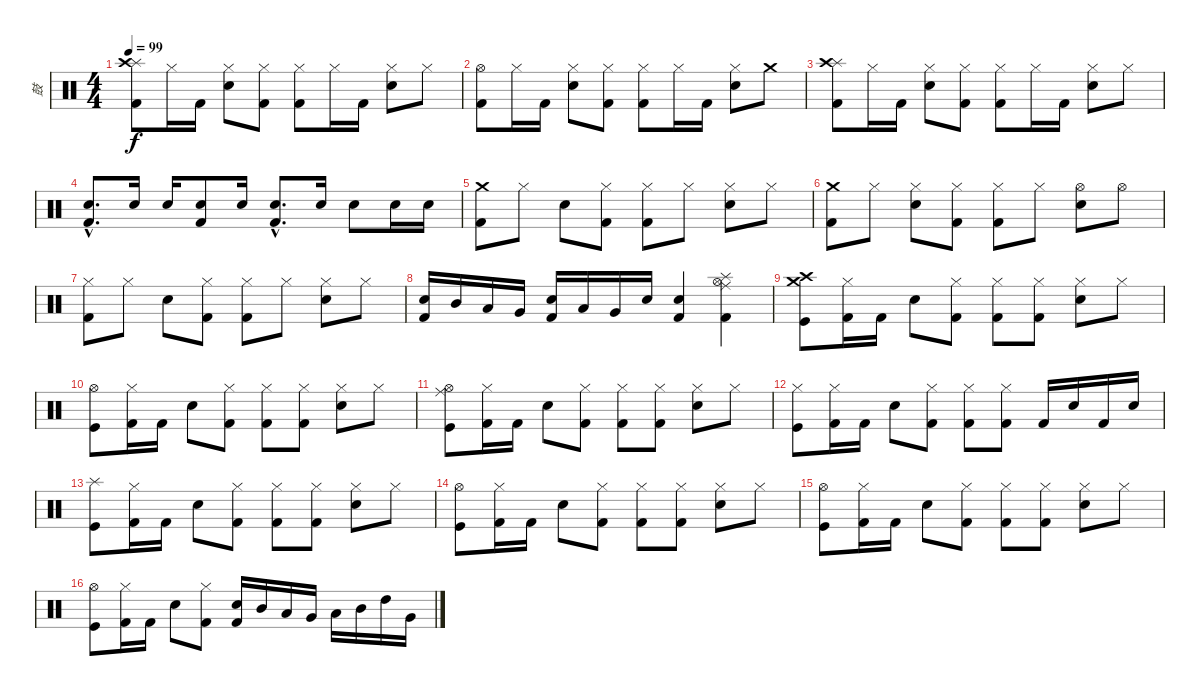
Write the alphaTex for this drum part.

\track ("鼓" "鼓") {instrument percussion}
\staff {score}
\articulation defaults
\ts (4 4)
\tempo 99
\clef neutral
\ks c
("Splash (hit)" "Crash high (hit)" "Kick (hit) 2").8{dy f} "Hi-Hat (closed)".16 "Kick (hit) 2".16 ("Hi-Hat (closed)" "Electric Snare (hit)").8 ("Hi-Hat (closed)" "Kick (hit) 2").8 ("Hi-Hat (closed)" "Kick (hit) 2").8 "Hi-Hat (closed)".16 "Kick (hit) 2".16 ("Hi-Hat (closed)" "Electric Snare (hit)").8 "Hi-Hat (closed)".8 |
("Hi-Hat (open)" "Kick (hit) 2").8 "Hi-Hat (closed)".16 "Kick (hit) 2".16 ("Hi-Hat (closed)" "Electric Snare (hit)").8 ("Hi-Hat (closed)" "Kick (hit) 2").8 ("Hi-Hat (closed)" "Kick (hit) 2").8 "Hi-Hat (closed)".16 "Kick (hit) 2".16 ("Hi-Hat (closed)" "Electric Snare (hit)").8 "Crash medium (hit)".8 |
("Splash (hit)" "Crash high (hit)" "Kick (hit) 2").8 "Hi-Hat (closed)".16 "Kick (hit) 2".16 ("Hi-Hat (closed)" "Electric Snare (hit)").8 ("Hi-Hat (closed)" "Kick (hit) 2").8 ("Hi-Hat (closed)" "Kick (hit) 2").8 "Hi-Hat (closed)".16 "Kick (hit) 2".16 ("Hi-Hat (closed)" "Electric Snare (hit)").8 "Hi-Hat (closed)".8 |
("Electric Snare (hit)"{hac} "Kick (hit) 2"{hac}).8{d} "Electric Snare (hit)".16 "Electric Snare (hit)".16 ("Electric Snare (hit)" "Kick (hit) 2").8 "Electric Snare (hit)".16 ("Electric Snare (hit)"{hac} "Kick (hit) 2"{hac}).8{d} "Electric Snare (hit)".16 "Electric Snare (hit)".8 "Electric Snare (hit)".16 "Electric Snare (hit)".16 |
("Crash medium (hit)" "Kick (hit) 2").8 "Hi-Hat (closed)".8 "Electric Snare (hit)".8 ("Hi-Hat (closed)" "Kick (hit) 2").8 ("Hi-Hat (closed)" "Kick (hit) 2").8 "Hi-Hat (closed)".8 ("Hi-Hat (closed)" "Electric Snare (hit)").8 "Hi-Hat (closed)".8 |
("Crash medium (hit)" "Kick (hit) 2").8 "Hi-Hat (closed)".8 ("Hi-Hat (closed)" "Electric Snare (hit)").8 ("Hi-Hat (closed)" "Kick (hit) 2").8 ("Hi-Hat (closed)" "Kick (hit) 2").8 "Hi-Hat (closed)".8 ("Hi-Hat (open)" "Electric Snare (hit)").8 "Hi-Hat (open)".8 |
("Hi-Hat (closed)" "Kick (hit) 2").8 "Hi-Hat (closed)".8 "Electric Snare (hit)".8 ("Hi-Hat (closed)" "Kick (hit) 2").8 ("Hi-Hat (closed)" "Kick (hit) 2").8 "Hi-Hat (closed)".8 ("Hi-Hat (closed)" "Electric Snare (hit)").8 "Hi-Hat (closed)".8 |
("Electric Snare (hit)" "Kick (hit) 2").16 "Mid Tom (hit)".16 "Low Tom (hit)".16 "Very Low Tom (hit)".16 ("Electric Snare (hit)" "Kick (hit) 2").16 "Low Tom (hit)".16 "Very Low Tom (hit)".16 "Electric Snare (hit)".16 ("Electric Snare (hit)" "Kick (hit) 2").4 ("Splash (hit)" "Ride (middle)" "Hi-Hat (open)" "Kick (hit) 2").4 |
("Crash medium (hit)" "Crash high (hit)" "Kick (hit)").8 ("Hi-Hat (closed)" "Kick (hit) 2").16 "Kick (hit) 2".16 "Electric Snare (hit)".8 ("Hi-Hat (closed)" "Kick (hit) 2").8 ("Hi-Hat (closed)" "Kick (hit) 2").8 ("Hi-Hat (closed)" "Kick (hit) 2").8 ("Hi-Hat (closed)" "Electric Snare (hit)").8 "Hi-Hat (closed)".8 |
("Hi-Hat (open)" "Kick (hit)").8 ("Hi-Hat (closed)" "Kick (hit) 2").16 "Kick (hit) 2".16 "Electric Snare (hit)".8 ("Hi-Hat (closed)" "Kick (hit) 2").8 ("Hi-Hat (closed)" "Kick (hit) 2").8 ("Hi-Hat (closed)" "Kick (hit) 2").8 ("Hi-Hat (closed)" "Electric Snare (hit)").8 "Hi-Hat (closed)".8 |
("Ride (middle)" "Hi-Hat (open)" "Kick (hit)").8 ("Hi-Hat (closed)" "Kick (hit) 2").16 "Kick (hit) 2".16 "Electric Snare (hit)".8 ("Hi-Hat (closed)" "Kick (hit) 2").8 ("Hi-Hat (closed)" "Kick (hit) 2").8 ("Hi-Hat (closed)" "Kick (hit) 2").8 ("Hi-Hat (closed)" "Electric Snare (hit)").8 "Hi-Hat (closed)".8 |
("Hi-Hat (closed)" "Kick (hit)").8 ("Hi-Hat (closed)" "Kick (hit) 2").16 "Kick (hit) 2".16 "Electric Snare (hit)".8 ("Hi-Hat (closed)" "Kick (hit) 2").8 ("Hi-Hat (closed)" "Kick (hit) 2").8 ("Hi-Hat (closed)" "Kick (hit) 2").8 "Kick (hit) 2".16 "Electric Snare (hit)".16 "Kick (hit) 2".16 "Electric Snare (hit)".16 |
("Splash (hit)" "Kick (hit)").8 ("Hi-Hat (closed)" "Kick (hit) 2").16 "Kick (hit) 2".16 "Electric Snare (hit)".8 ("Hi-Hat (closed)" "Kick (hit) 2").8 ("Hi-Hat (closed)" "Kick (hit) 2").8 ("Hi-Hat (closed)" "Kick (hit) 2").8 ("Hi-Hat (closed)" "Electric Snare (hit)").8 "Hi-Hat (closed)".8 |
("Hi-Hat (open)" "Kick (hit)").8 ("Hi-Hat (closed)" "Kick (hit) 2").16 "Kick (hit) 2".16 "Electric Snare (hit)".8 ("Hi-Hat (closed)" "Kick (hit) 2").8 ("Hi-Hat (closed)" "Kick (hit) 2").8 ("Hi-Hat (closed)" "Kick (hit) 2").8 ("Hi-Hat (closed)" "Electric Snare (hit)").8 "Hi-Hat (closed)".8 |
("Hi-Hat (open)" "Kick (hit)").8 ("Hi-Hat (closed)" "Kick (hit) 2").16 "Kick (hit) 2".16 "Electric Snare (hit)".8 ("Hi-Hat (closed)" "Kick (hit) 2").8 ("Hi-Hat (closed)" "Kick (hit) 2").8 ("Hi-Hat (closed)" "Kick (hit) 2").8 ("Hi-Hat (closed)" "Electric Snare (hit)").8 "Hi-Hat (closed)".8 |
("Hi-Hat (open)" "Kick (hit)").8 ("Hi-Hat (closed)" "Kick (hit) 2").16 "Kick (hit) 2".16 "Electric Snare (hit)".8 ("Hi-Hat (closed)" "Kick (hit) 2").8 ("Electric Snare (hit)" "Kick (hit) 2").16 "Mid Tom (hit)".16 "Low Tom (hit)".16 "Very Low Tom (hit)".16 "Low Tom (hit)".16 "Mid Tom (hit)".16 "High Tom (hit)".16 "Very Low Tom (hit)".16
